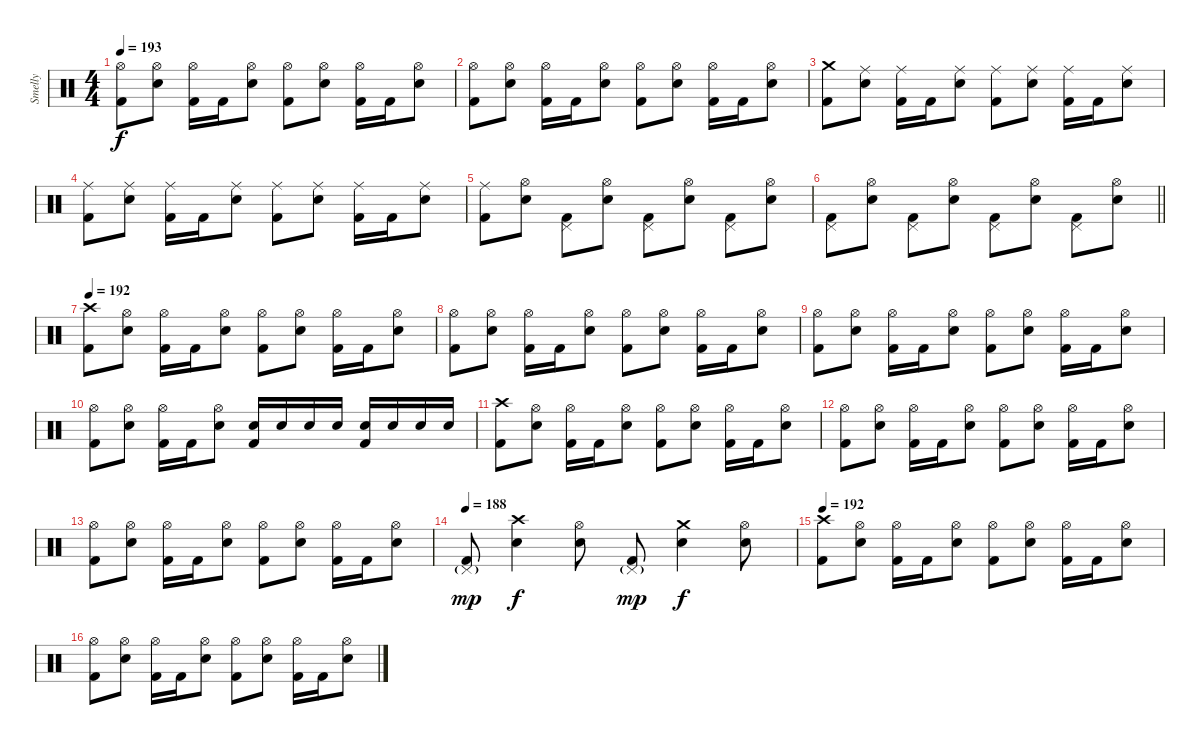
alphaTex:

\track ("Smelly" "Smelly") {instrument percussion}
\staff {score}
\articulation defaults
\ts (4 4)
\tempo 193
\clef neutral
\ks c
("Hi-Hat (open)" "Kick (hit) 2").8{dy f} ("Hi-Hat (open)" "Electric Snare (hit)").8 ("Hi-Hat (open)" "Kick (hit) 2").16 "Kick (hit) 2".16 ("Hi-Hat (open)" "Electric Snare (hit)").8 ("Hi-Hat (open)" "Kick (hit) 2").8 ("Hi-Hat (open)" "Electric Snare (hit)").8 ("Hi-Hat (open)" "Kick (hit) 2").16 "Kick (hit) 2".16 ("Hi-Hat (open)" "Electric Snare (hit)").8 |
("Hi-Hat (open)" "Kick (hit) 2").8 ("Hi-Hat (open)" "Electric Snare (hit)").8 ("Hi-Hat (open)" "Kick (hit) 2").16 "Kick (hit) 2".16 ("Hi-Hat (open)" "Electric Snare (hit)").8 ("Hi-Hat (open)" "Kick (hit) 2").8 ("Hi-Hat (open)" "Electric Snare (hit)").8 ("Hi-Hat (open)" "Kick (hit) 2").16 "Kick (hit) 2".16 ("Hi-Hat (open)" "Electric Snare (hit)").8 |
("Crash medium (hit)" "Kick (hit) 2").8 ("Ride (middle)" "Electric Snare (hit)").8 ("Ride (middle)" "Kick (hit) 2").16 "Kick (hit) 2".16 ("Ride (middle)" "Electric Snare (hit)").8 ("Ride (middle)" "Kick (hit) 2").8 ("Ride (middle)" "Electric Snare (hit)").8 ("Ride (middle)" "Kick (hit) 2").16 "Kick (hit) 2".16 ("Ride (middle)" "Electric Snare (hit)").8 |
("Ride (middle)" "Kick (hit) 2").8 ("Ride (middle)" "Electric Snare (hit)").8 ("Ride (middle)" "Kick (hit) 2").16 "Kick (hit) 2".16 ("Ride (middle)" "Electric Snare (hit)").8 ("Ride (middle)" "Kick (hit) 2").8 ("Ride (middle)" "Electric Snare (hit)").8 ("Ride (middle)" "Kick (hit) 2").16 "Kick (hit) 2".16 ("Ride (middle)" "Electric Snare (hit)").8 |
("Ride (middle)" "Kick (hit) 2").8 ("Hi-Hat (open)" "Electric Snare (hit)").8 ("Pedal Hi-Hat (hit)" "Kick (hit) 2").8 ("Hi-Hat (open)" "Electric Snare (hit)").8 ("Pedal Hi-Hat (hit)" "Kick (hit) 2").8 ("Hi-Hat (open)" "Electric Snare (hit)").8 ("Pedal Hi-Hat (hit)" "Kick (hit) 2").8 ("Hi-Hat (open)" "Electric Snare (hit)").8 |
\barLineRight lightlight
("Pedal Hi-Hat (hit)" "Kick (hit) 2").8 ("Hi-Hat (open)" "Electric Snare (hit)").8 ("Pedal Hi-Hat (hit)" "Kick (hit) 2").8 ("Hi-Hat (open)" "Electric Snare (hit)").8 ("Pedal Hi-Hat (hit)" "Kick (hit) 2").8 ("Hi-Hat (open)" "Electric Snare (hit)").8 ("Pedal Hi-Hat (hit)" "Kick (hit) 2").8 ("Hi-Hat (open)" "Electric Snare (hit)").8 |
\section ("" "")
\tempo 192
("Crash high (hit)" "Kick (hit) 2").8 ("Hi-Hat (open)" "Electric Snare (hit)").8 ("Hi-Hat (open)" "Kick (hit) 2").16 "Kick (hit) 2".16 ("Hi-Hat (open)" "Electric Snare (hit)").8 ("Hi-Hat (open)" "Kick (hit) 2").8 ("Hi-Hat (open)" "Electric Snare (hit)").8 ("Hi-Hat (open)" "Kick (hit) 2").16 "Kick (hit) 2".16 ("Hi-Hat (open)" "Electric Snare (hit)").8 |
("Hi-Hat (open)" "Kick (hit) 2").8 ("Hi-Hat (open)" "Electric Snare (hit)").8 ("Hi-Hat (open)" "Kick (hit) 2").16 "Kick (hit) 2".16 ("Hi-Hat (open)" "Electric Snare (hit)").8 ("Hi-Hat (open)" "Kick (hit) 2").8 ("Hi-Hat (open)" "Electric Snare (hit)").8 ("Hi-Hat (open)" "Kick (hit) 2").16 "Kick (hit) 2".16 ("Hi-Hat (open)" "Electric Snare (hit)").8 |
("Hi-Hat (open)" "Kick (hit) 2").8 ("Hi-Hat (open)" "Electric Snare (hit)").8 ("Hi-Hat (open)" "Kick (hit) 2").16 "Kick (hit) 2".16 ("Hi-Hat (open)" "Electric Snare (hit)").8 ("Hi-Hat (open)" "Kick (hit) 2").8 ("Hi-Hat (open)" "Electric Snare (hit)").8 ("Hi-Hat (open)" "Kick (hit) 2").16 "Kick (hit) 2".16 ("Hi-Hat (open)" "Electric Snare (hit)").8 |
("Hi-Hat (open)" "Kick (hit) 2").8 ("Hi-Hat (open)" "Electric Snare (hit)").8 ("Hi-Hat (open)" "Kick (hit) 2").16 "Kick (hit) 2".16 ("Hi-Hat (open)" "Electric Snare (hit)").8 ("Electric Snare (hit)" "Kick (hit) 2").16 "Electric Snare (hit)".16 "Electric Snare (hit)".16 "Electric Snare (hit)".16 ("Electric Snare (hit)" "Kick (hit) 2").16 "Electric Snare (hit)".16 "Electric Snare (hit)".16 "Electric Snare (hit)".16 |
("Crash high (hit)" "Kick (hit) 2").8 ("Hi-Hat (open)" "Electric Snare (hit)").8 ("Hi-Hat (open)" "Kick (hit) 2").16 "Kick (hit) 2".16 ("Hi-Hat (open)" "Electric Snare (hit)").8 ("Hi-Hat (open)" "Kick (hit) 2").8 ("Hi-Hat (open)" "Electric Snare (hit)").8 ("Hi-Hat (open)" "Kick (hit) 2").16 "Kick (hit) 2".16 ("Hi-Hat (open)" "Electric Snare (hit)").8 |
("Hi-Hat (open)" "Kick (hit) 2").8 ("Hi-Hat (open)" "Electric Snare (hit)").8 ("Hi-Hat (open)" "Kick (hit) 2").16 "Kick (hit) 2".16 ("Hi-Hat (open)" "Electric Snare (hit)").8 ("Hi-Hat (open)" "Kick (hit) 2").8 ("Hi-Hat (open)" "Electric Snare (hit)").8 ("Hi-Hat (open)" "Kick (hit) 2").16 "Kick (hit) 2".16 ("Hi-Hat (open)" "Electric Snare (hit)").8 |
("Hi-Hat (open)" "Kick (hit) 2").8 ("Hi-Hat (open)" "Electric Snare (hit)").8 ("Hi-Hat (open)" "Kick (hit) 2").16 "Kick (hit) 2".16 ("Hi-Hat (open)" "Electric Snare (hit)").8 ("Hi-Hat (open)" "Kick (hit) 2").8 ("Hi-Hat (open)" "Electric Snare (hit)").8 ("Hi-Hat (open)" "Kick (hit) 2").16 "Kick (hit) 2".16 ("Hi-Hat (open)" "Electric Snare (hit)").8 |
\tempo 188
("Pedal Hi-Hat (hit)"{g} "Kick (hit) 2").8{dy mp} ("Crash high (hit)" "Electric Snare (hit)").4{dy f} ("Hi-Hat (open)" "Electric Snare (hit)").8 ("Pedal Hi-Hat (hit)"{g} "Kick (hit) 2").8{dy mp} ("Crash medium (hit)" "Electric Snare (hit)").4{dy f} ("Hi-Hat (open)" "Electric Snare (hit)").8 |
\tempo 192
("Crash high (hit)" "Kick (hit) 2").8 ("Hi-Hat (open)" "Electric Snare (hit)").8 ("Hi-Hat (open)" "Kick (hit) 2").16 "Kick (hit) 2".16 ("Hi-Hat (open)" "Electric Snare (hit)").8 ("Hi-Hat (open)" "Kick (hit) 2").8 ("Hi-Hat (open)" "Electric Snare (hit)").8 ("Hi-Hat (open)" "Kick (hit) 2").16 "Kick (hit) 2".16 ("Hi-Hat (open)" "Electric Snare (hit)").8 |
("Hi-Hat (open)" "Kick (hit) 2").8 ("Hi-Hat (open)" "Electric Snare (hit)").8 ("Hi-Hat (open)" "Kick (hit) 2").16 "Kick (hit) 2".16 ("Hi-Hat (open)" "Electric Snare (hit)").8 ("Hi-Hat (open)" "Kick (hit) 2").8 ("Hi-Hat (open)" "Electric Snare (hit)").8 ("Hi-Hat (open)" "Kick (hit) 2").16 "Kick (hit) 2".16 ("Hi-Hat (open)" "Electric Snare (hit)").8
